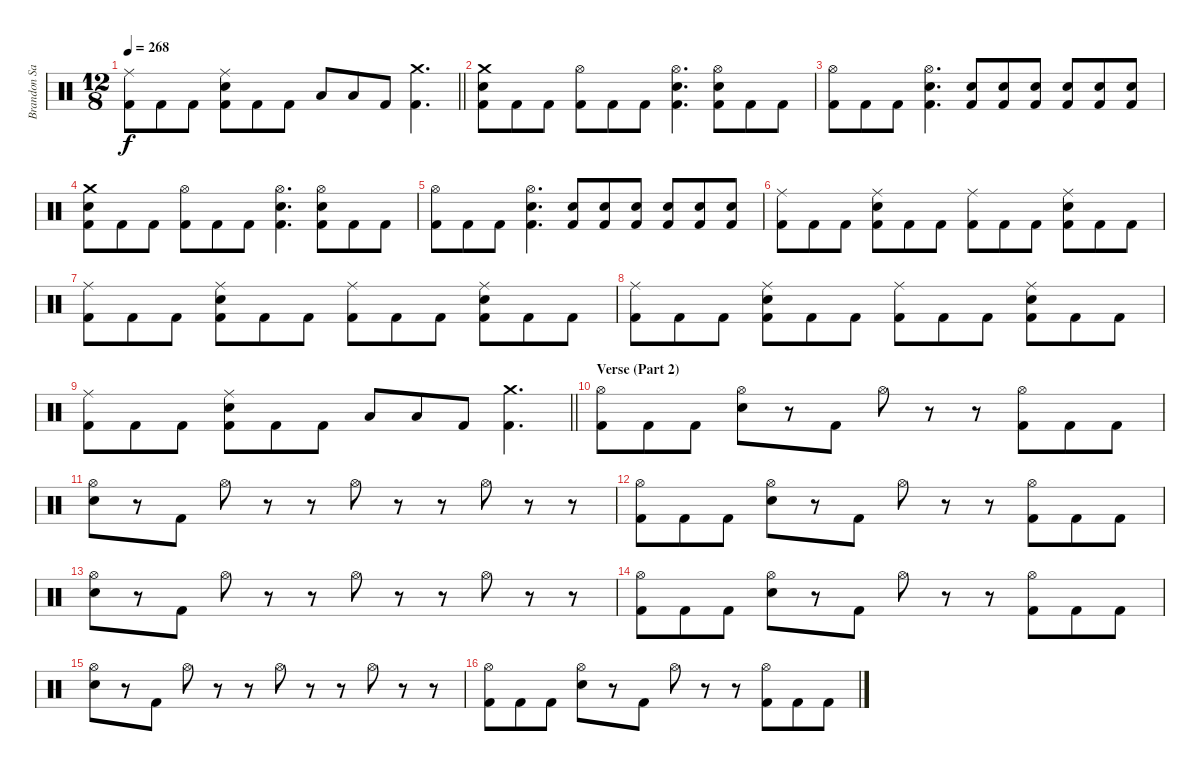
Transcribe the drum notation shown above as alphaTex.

\track ("Brandon Saller" "Brandon Sa") {instrument percussion}
\staff {score}
\articulation defaults
\ts (12 8)
\tempo 268
\clef neutral
\barLineRight lightlight
\ks c
("Ride (middle)" "Kick (hit) 2").8{dy f} "Kick (hit) 2".8 "Kick (hit) 2".8 ("Ride (middle)" "Electric Snare (hit)" "Kick (hit) 2").8 "Kick (hit) 2".8 "Kick (hit) 2".8 "Low Tom (hit)".8 "Low Floor Tom (hit)".8 "Kick (hit) 2".8 ("Crash medium (hit)" "Kick (hit) 2").4{d} |
("Crash medium (hit)" "Electric Snare (hit)" "Kick (hit) 2").8 "Kick (hit) 2".8 "Kick (hit) 2".8 ("Hi-Hat (open)" "Kick (hit) 2").8 "Kick (hit) 2".8 "Kick (hit) 2".8 ("Hi-Hat (open)" "Electric Snare (hit)" "Kick (hit) 2").4{d} ("Hi-Hat (open)" "Electric Snare (hit)" "Kick (hit) 2").8 "Kick (hit) 2".8 "Kick (hit) 2".8 |
("Hi-Hat (open)" "Kick (hit) 2").8 "Kick (hit) 2".8 "Kick (hit) 2".8 ("Hi-Hat (open)" "Electric Snare (hit)" "Kick (hit) 2").4{d} ("Electric Snare (hit)" "Kick (hit) 2").8 ("Electric Snare (hit)" "Kick (hit) 2").8 ("Electric Snare (hit)" "Kick (hit) 2").8 ("Electric Snare (hit)" "Kick (hit) 2").8 ("Electric Snare (hit)" "Kick (hit) 2").8 ("Electric Snare (hit)" "Kick (hit) 2").8 |
("Crash medium (hit)" "Electric Snare (hit)" "Kick (hit) 2").8 "Kick (hit) 2".8 "Kick (hit) 2".8 ("Hi-Hat (open)" "Kick (hit) 2").8 "Kick (hit) 2".8 "Kick (hit) 2".8 ("Hi-Hat (open)" "Electric Snare (hit)" "Kick (hit) 2").4{d} ("Hi-Hat (open)" "Electric Snare (hit)" "Kick (hit) 2").8 "Kick (hit) 2".8 "Kick (hit) 2".8 |
("Hi-Hat (open)" "Kick (hit) 2").8 "Kick (hit) 2".8 "Kick (hit) 2".8 ("Hi-Hat (open)" "Electric Snare (hit)" "Kick (hit) 2").4{d} ("Electric Snare (hit)" "Kick (hit) 2").8 ("Electric Snare (hit)" "Kick (hit) 2").8 ("Electric Snare (hit)" "Kick (hit) 2").8 ("Electric Snare (hit)" "Kick (hit) 2").8 ("Electric Snare (hit)" "Kick (hit) 2").8 ("Electric Snare (hit)" "Kick (hit) 2").8 |
("Ride (middle)" "Kick (hit) 2").8 "Kick (hit) 2".8 "Kick (hit) 2".8 ("Ride (middle)" "Electric Snare (hit)" "Kick (hit) 2").8 "Kick (hit) 2".8 "Kick (hit) 2".8 ("Ride (middle)" "Kick (hit) 2").8 "Kick (hit) 2".8 "Kick (hit) 2".8 ("Ride (middle)" "Electric Snare (hit)" "Kick (hit) 2").8 "Kick (hit) 2".8 "Kick (hit) 2".8 |
("Ride (middle)" "Kick (hit) 2").8 "Kick (hit) 2".8 "Kick (hit) 2".8 ("Ride (middle)" "Electric Snare (hit)" "Kick (hit) 2").8 "Kick (hit) 2".8 "Kick (hit) 2".8 ("Ride (middle)" "Kick (hit) 2").8 "Kick (hit) 2".8 "Kick (hit) 2".8 ("Ride (middle)" "Electric Snare (hit)" "Kick (hit) 2").8 "Kick (hit) 2".8 "Kick (hit) 2".8 |
("Ride (middle)" "Kick (hit) 2").8 "Kick (hit) 2".8 "Kick (hit) 2".8 ("Ride (middle)" "Electric Snare (hit)" "Kick (hit) 2").8 "Kick (hit) 2".8 "Kick (hit) 2".8 ("Ride (middle)" "Kick (hit) 2").8 "Kick (hit) 2".8 "Kick (hit) 2".8 ("Ride (middle)" "Electric Snare (hit)" "Kick (hit) 2").8 "Kick (hit) 2".8 "Kick (hit) 2".8 |
\barLineRight lightlight
("Ride (middle)" "Kick (hit) 2").8 "Kick (hit) 2".8 "Kick (hit) 2".8 ("Ride (middle)" "Electric Snare (hit)" "Kick (hit) 2").8 "Kick (hit) 2".8 "Kick (hit) 2".8 "Low Tom (hit)".8 "Low Floor Tom (hit)".8 "Kick (hit) 2".8 ("Crash medium (hit)" "Kick (hit) 2").4{d} |
\section ("" "Verse (Part 2)")
("Hi-Hat (open)" "Kick (hit) 2").8 "Kick (hit) 2".8 "Kick (hit) 2".8 ("Hi-Hat (open)" "Electric Snare (hit)").8 r.8 "Kick (hit) 2".8 "Hi-Hat (open)".8 r.8 r.8 ("Hi-Hat (open)" "Kick (hit) 2").8 "Kick (hit) 2".8 "Kick (hit) 2".8 |
("Hi-Hat (open)" "Electric Snare (hit)").8 r.8 "Kick (hit) 2".8 "Hi-Hat (open)".8 r.8 r.8 "Hi-Hat (open)".8 r.8 r.8 "Hi-Hat (open)".8 r.8 r.8 |
("Hi-Hat (open)" "Kick (hit) 2").8 "Kick (hit) 2".8 "Kick (hit) 2".8 ("Hi-Hat (open)" "Electric Snare (hit)").8 r.8 "Kick (hit) 2".8 "Hi-Hat (open)".8 r.8 r.8 ("Hi-Hat (open)" "Kick (hit) 2").8 "Kick (hit) 2".8 "Kick (hit) 2".8 |
("Hi-Hat (open)" "Electric Snare (hit)").8 r.8 "Kick (hit) 2".8 "Hi-Hat (open)".8 r.8 r.8 "Hi-Hat (open)".8 r.8 r.8 "Hi-Hat (open)".8 r.8 r.8 |
("Hi-Hat (open)" "Kick (hit) 2").8 "Kick (hit) 2".8 "Kick (hit) 2".8 ("Hi-Hat (open)" "Electric Snare (hit)").8 r.8 "Kick (hit) 2".8 "Hi-Hat (open)".8 r.8 r.8 ("Hi-Hat (open)" "Kick (hit) 2").8 "Kick (hit) 2".8 "Kick (hit) 2".8 |
("Hi-Hat (open)" "Electric Snare (hit)").8 r.8 "Kick (hit) 2".8 "Hi-Hat (open)".8 r.8 r.8 "Hi-Hat (open)".8 r.8 r.8 "Hi-Hat (open)".8 r.8 r.8 |
("Hi-Hat (open)" "Kick (hit) 2").8 "Kick (hit) 2".8 "Kick (hit) 2".8 ("Hi-Hat (open)" "Electric Snare (hit)").8 r.8 "Kick (hit) 2".8 "Hi-Hat (open)".8 r.8 r.8 ("Hi-Hat (open)" "Kick (hit) 2").8 "Kick (hit) 2".8 "Kick (hit) 2".8
